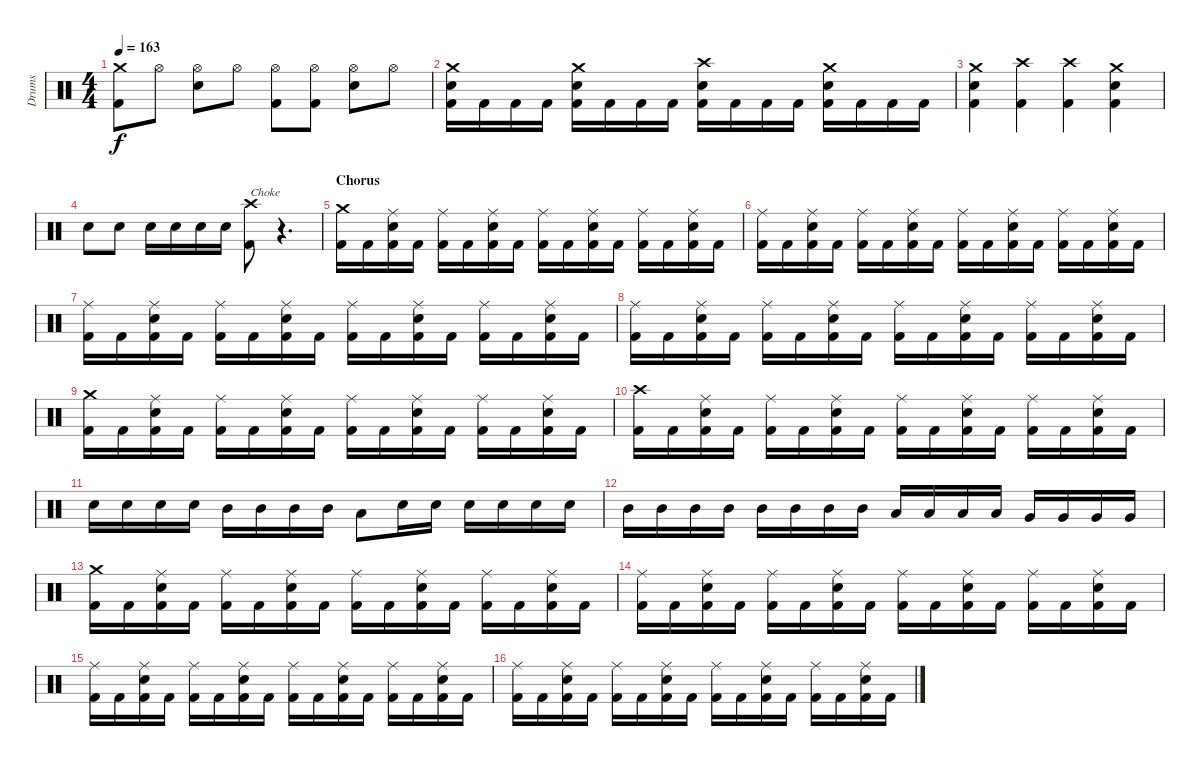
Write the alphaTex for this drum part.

\track ("Drums" "Drums") {instrument percussion}
\staff {score}
\articulation defaults
\ts (4 4)
\tempo 163
\clef neutral
\ks c
("Crash medium (hit)" "Kick (hit) 2").8{dy f} "Hi-Hat (open)".8 ("Hi-Hat (open)" "Snare (hit) 2").8 "Hi-Hat (open)".8 ("Hi-Hat (open)" "Kick (hit) 2").8 ("Hi-Hat (open)" "Kick (hit) 2").8 ("Hi-Hat (open)" "Snare (hit) 2").8 "Hi-Hat (open)".8 |
("Crash medium (hit)" "Snare (hit) 2" "Kick (hit) 2").16 "Kick (hit) 2".16 "Kick (hit) 2".16 "Kick (hit) 2".16 ("Crash medium (hit)" "Snare (hit) 2" "Kick (hit) 2").16 "Kick (hit) 2".16 "Kick (hit) 2".16 "Kick (hit) 2".16 ("Crash high (hit)" "Snare (hit) 2" "Kick (hit) 2").16 "Kick (hit) 2".16 "Kick (hit) 2".16 "Kick (hit) 2".16 ("Crash medium (hit)" "Snare (hit) 2" "Kick (hit) 2").16 "Kick (hit) 2".16 "Kick (hit) 2".16 "Kick (hit) 2".16 |
("Crash medium (hit)" "Snare (hit) 2" "Kick (hit) 2").4 ("Crash high (hit)" "Kick (hit) 2").4 ("Crash high (hit)" "Kick (hit) 2").4 ("Crash medium (hit)" "Snare (hit) 2" "Kick (hit) 2").4 |
"Snare (hit) 2".8 "Snare (hit) 2".8 "Snare (hit) 2".16 "Snare (hit) 2".16 "Snare (hit) 2".16 "Snare (hit) 2".16 ("Crash high (hit)" "Kick (hit) 2").8{txt "Choke"} r.4{d volume 2} |
\section ("" "Chorus")
("Crash medium (hit)" "Kick (hit) 2").16{volume 14} "Kick (hit) 2".16 ("Ride (middle)" "Snare (hit) 2" "Kick (hit) 2").16 "Kick (hit) 2".16 ("Ride (middle)" "Kick (hit) 2").16 "Kick (hit) 2".16 ("Ride (middle)" "Snare (hit) 2" "Kick (hit) 2").16 "Kick (hit) 2".16 ("Ride (middle)" "Kick (hit) 2").16 "Kick (hit) 2".16 ("Ride (middle)" "Snare (hit) 2" "Kick (hit) 2").16 "Kick (hit) 2".16 ("Ride (middle)" "Kick (hit) 2").16 "Kick (hit) 2".16 ("Ride (middle)" "Snare (hit) 2" "Kick (hit) 2").16 "Kick (hit) 2".16 |
("Ride (middle)" "Kick (hit) 2").16 "Kick (hit) 2".16 ("Ride (middle)" "Snare (hit) 2" "Kick (hit) 2").16 "Kick (hit) 2".16 ("Ride (middle)" "Kick (hit) 2").16 "Kick (hit) 2".16 ("Ride (middle)" "Snare (hit) 2" "Kick (hit) 2").16 "Kick (hit) 2".16 ("Ride (middle)" "Kick (hit) 2").16 "Kick (hit) 2".16 ("Ride (middle)" "Snare (hit) 2" "Kick (hit) 2").16 "Kick (hit) 2".16 ("Ride (middle)" "Kick (hit) 2").16 "Kick (hit) 2".16 ("Ride (middle)" "Snare (hit) 2" "Kick (hit) 2").16 "Kick (hit) 2".16 |
("Ride (middle)" "Kick (hit) 2").16 "Kick (hit) 2".16 ("Ride (middle)" "Snare (hit) 2" "Kick (hit) 2").16 "Kick (hit) 2".16 ("Ride (middle)" "Kick (hit) 2").16 "Kick (hit) 2".16 ("Ride (middle)" "Snare (hit) 2" "Kick (hit) 2").16 "Kick (hit) 2".16 ("Ride (middle)" "Kick (hit) 2").16 "Kick (hit) 2".16 ("Ride (middle)" "Snare (hit) 2" "Kick (hit) 2").16 "Kick (hit) 2".16 ("Ride (middle)" "Kick (hit) 2").16 "Kick (hit) 2".16 ("Ride (middle)" "Snare (hit) 2" "Kick (hit) 2").16 "Kick (hit) 2".16 |
("Ride (middle)" "Kick (hit) 2").16 "Kick (hit) 2".16 ("Ride (middle)" "Snare (hit) 2" "Kick (hit) 2").16 "Kick (hit) 2".16 ("Ride (middle)" "Kick (hit) 2").16 "Kick (hit) 2".16 ("Ride (middle)" "Snare (hit) 2" "Kick (hit) 2").16 "Kick (hit) 2".16 ("Ride (middle)" "Kick (hit) 2").16 "Kick (hit) 2".16 ("Ride (middle)" "Snare (hit) 2" "Kick (hit) 2").16 "Kick (hit) 2".16 ("Ride (middle)" "Kick (hit) 2").16 "Kick (hit) 2".16 ("Ride (middle)" "Snare (hit) 2" "Kick (hit) 2").16 "Kick (hit) 2".16 |
("Crash medium (hit)" "Kick (hit) 2").16 "Kick (hit) 2".16 ("Ride (middle)" "Snare (hit) 2" "Kick (hit) 2").16 "Kick (hit) 2".16 ("Ride (middle)" "Kick (hit) 2").16 "Kick (hit) 2".16 ("Ride (middle)" "Snare (hit) 2" "Kick (hit) 2").16 "Kick (hit) 2".16 ("Ride (middle)" "Kick (hit) 2").16 "Kick (hit) 2".16 ("Ride (middle)" "Snare (hit) 2" "Kick (hit) 2").16 "Kick (hit) 2".16 ("Ride (middle)" "Kick (hit) 2").16 "Kick (hit) 2".16 ("Ride (middle)" "Snare (hit) 2" "Kick (hit) 2").16 "Kick (hit) 2".16 |
("Crash high (hit)" "Kick (hit) 2").16 "Kick (hit) 2".16 ("Ride (middle)" "Snare (hit) 2" "Kick (hit) 2").16 "Kick (hit) 2".16 ("Ride (middle)" "Kick (hit) 2").16 "Kick (hit) 2".16 ("Ride (middle)" "Snare (hit) 2" "Kick (hit) 2").16 "Kick (hit) 2".16 ("Ride (middle)" "Kick (hit) 2").16 "Kick (hit) 2".16 ("Ride (middle)" "Snare (hit) 2" "Kick (hit) 2").16 "Kick (hit) 2".16 ("Ride (middle)" "Kick (hit) 2").16 "Kick (hit) 2".16 ("Ride (middle)" "Snare (hit) 2" "Kick (hit) 2").16 "Kick (hit) 2".16 |
"Snare (hit) 2".16 "Snare (hit) 2".16 "Snare (hit) 2".16 "Snare (hit) 2".16 "Mid Tom (hit)".16 "Mid Tom (hit)".16 "Mid Tom (hit)".16 "Mid Tom (hit)".16 "Low Tom (hit)".8 "Snare (hit) 2".16 "Snare (hit) 2".16 "Snare (hit) 2".16 "Snare (hit) 2".16 "Snare (hit) 2".16 "Snare (hit) 2".16 |
"Mid Tom (hit)".16 "Mid Tom (hit)".16 "Mid Tom (hit)".16 "Mid Tom (hit)".16 "Mid Tom (hit)".16 "Mid Tom (hit)".16 "Mid Tom (hit)".16 "Mid Tom (hit)".16 "Low Tom (hit)".16 "Low Tom (hit)".16 "Low Tom (hit)".16 "Low Tom (hit)".16 "Very Low Tom (hit)".16 "Very Low Tom (hit)".16 "Very Low Tom (hit)".16 "Very Low Tom (hit)".16 |
("Crash medium (hit)" "Kick (hit) 2").16 "Kick (hit) 2".16 ("Ride (middle)" "Snare (hit) 2" "Kick (hit) 2").16 "Kick (hit) 2".16 ("Ride (middle)" "Kick (hit) 2").16 "Kick (hit) 2".16 ("Ride (middle)" "Snare (hit) 2" "Kick (hit) 2").16 "Kick (hit) 2".16 ("Ride (middle)" "Kick (hit) 2").16 "Kick (hit) 2".16 ("Ride (middle)" "Snare (hit) 2" "Kick (hit) 2").16 "Kick (hit) 2".16 ("Ride (middle)" "Kick (hit) 2").16 "Kick (hit) 2".16 ("Ride (middle)" "Snare (hit) 2" "Kick (hit) 2").16 "Kick (hit) 2".16 |
("Ride (middle)" "Kick (hit) 2").16 "Kick (hit) 2".16 ("Ride (middle)" "Snare (hit) 2" "Kick (hit) 2").16 "Kick (hit) 2".16 ("Ride (middle)" "Kick (hit) 2").16 "Kick (hit) 2".16 ("Ride (middle)" "Snare (hit) 2" "Kick (hit) 2").16 "Kick (hit) 2".16 ("Ride (middle)" "Kick (hit) 2").16 "Kick (hit) 2".16 ("Ride (middle)" "Snare (hit) 2" "Kick (hit) 2").16 "Kick (hit) 2".16 ("Ride (middle)" "Kick (hit) 2").16 "Kick (hit) 2".16 ("Ride (middle)" "Snare (hit) 2" "Kick (hit) 2").16 "Kick (hit) 2".16 |
("Ride (middle)" "Kick (hit) 2").16 "Kick (hit) 2".16 ("Ride (middle)" "Snare (hit) 2" "Kick (hit) 2").16 "Kick (hit) 2".16 ("Ride (middle)" "Kick (hit) 2").16 "Kick (hit) 2".16 ("Ride (middle)" "Snare (hit) 2" "Kick (hit) 2").16 "Kick (hit) 2".16 ("Ride (middle)" "Kick (hit) 2").16 "Kick (hit) 2".16 ("Ride (middle)" "Snare (hit) 2" "Kick (hit) 2").16 "Kick (hit) 2".16 ("Ride (middle)" "Kick (hit) 2").16 "Kick (hit) 2".16 ("Ride (middle)" "Snare (hit) 2" "Kick (hit) 2").16 "Kick (hit) 2".16 |
("Ride (middle)" "Kick (hit) 2").16 "Kick (hit) 2".16 ("Ride (middle)" "Snare (hit) 2" "Kick (hit) 2").16 "Kick (hit) 2".16 ("Ride (middle)" "Kick (hit) 2").16 "Kick (hit) 2".16 ("Ride (middle)" "Snare (hit) 2" "Kick (hit) 2").16 "Kick (hit) 2".16 ("Ride (middle)" "Kick (hit) 2").16 "Kick (hit) 2".16 ("Ride (middle)" "Snare (hit) 2" "Kick (hit) 2").16 "Kick (hit) 2".16 ("Ride (middle)" "Kick (hit) 2").16 "Kick (hit) 2".16 ("Ride (middle)" "Snare (hit) 2" "Kick (hit) 2").16 "Kick (hit) 2".16
